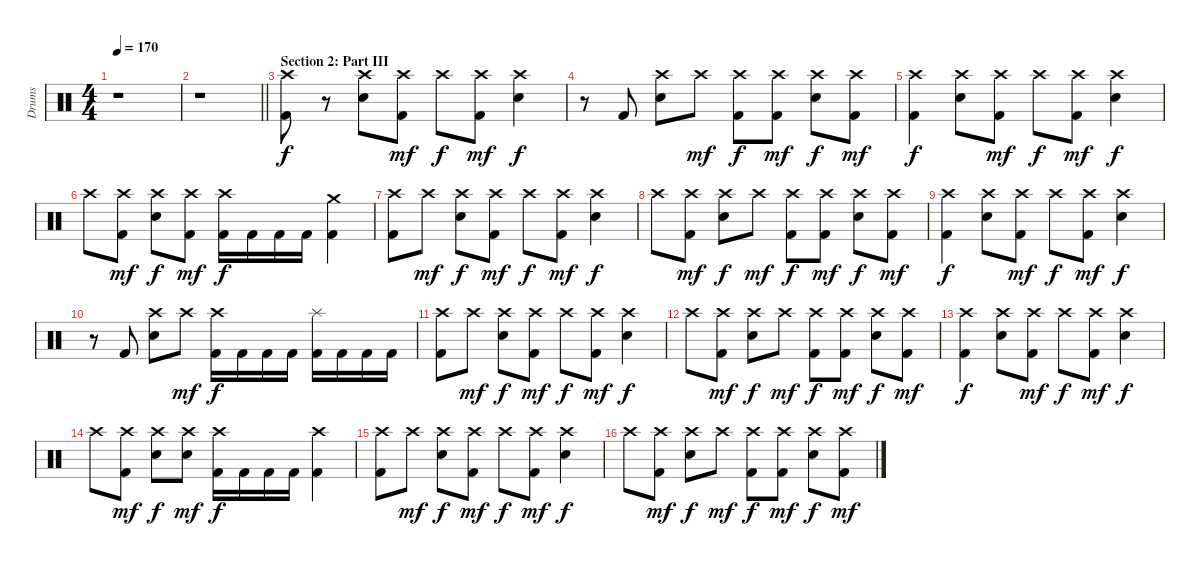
\track ("Drums" "Drums") {instrument percussion}
\staff {score}
\articulation defaults
\ts (4 4)
\tempo 170
\clef neutral
\ks c
r.1{dy f} |
\barLineRight lightlight
r.1 |
\section ("" "Section 2: Part III")
("Crash high (hit)" "Kick (hit) 2").8 r.8 ("Crash high (hit)" "Electric Snare (hit)").8 ("Crash high (hit)" "Kick (hit) 2").8{dy mf} "Crash high (hit)".8{dy f} ("Crash high (hit)" "Kick (hit) 2").8{dy mf} ("Crash high (hit)" "Electric Snare (hit)").4{dy f} |
r.8 "Kick (hit) 2".8 ("Crash high (hit)" "Electric Snare (hit)").8 "Crash high (hit)".8{dy mf} ("Crash high (hit)" "Kick (hit) 2").8{dy f} ("Crash high (hit)" "Kick (hit) 2").8{dy mf} ("Crash high (hit)" "Electric Snare (hit)").8{dy f} ("Crash high (hit)" "Kick (hit) 2").8{dy mf} |
("Crash high (hit)" "Kick (hit) 2").4{dy f} ("Crash high (hit)" "Electric Snare (hit)").8 ("Crash high (hit)" "Kick (hit) 2").8{dy mf} "Crash high (hit)".8{dy f} ("Crash high (hit)" "Kick (hit) 2").8{dy mf} ("Crash high (hit)" "Electric Snare (hit)").4{dy f} |
"Crash high (hit)".8 ("Crash high (hit)" "Kick (hit) 2").8{dy mf} ("Crash high (hit)" "Electric Snare (hit)").8{dy f} ("Crash high (hit)" "Kick (hit) 2").8{dy mf} ("Crash high (hit)" "Kick (hit) 2").16{dy f} "Kick (hit) 2".16 "Kick (hit) 2".16 "Kick (hit) 2".16 ("Crash medium (hit)" "Kick (hit) 2").4 |
("Crash high (hit)" "Kick (hit) 2").8 "Crash high (hit)".8{dy mf} ("Crash high (hit)" "Electric Snare (hit)").8{dy f} ("Crash high (hit)" "Kick (hit) 2").8{dy mf} "Crash high (hit)".8{dy f} ("Crash high (hit)" "Kick (hit) 2").8{dy mf} ("Crash high (hit)" "Electric Snare (hit)").4{dy f} |
"Crash high (hit)".8 ("Crash high (hit)" "Kick (hit) 2").8{dy mf} ("Crash high (hit)" "Electric Snare (hit)").8{dy f} "Crash high (hit)".8{dy mf} ("Crash high (hit)" "Kick (hit) 2").8{dy f} ("Crash high (hit)" "Kick (hit) 2").8{dy mf} ("Crash high (hit)" "Electric Snare (hit)").8{dy f} ("Crash high (hit)" "Kick (hit) 2").8{dy mf} |
("Crash high (hit)" "Kick (hit) 2").4{dy f} ("Crash high (hit)" "Electric Snare (hit)").8 ("Crash high (hit)" "Kick (hit) 2").8{dy mf} "Crash high (hit)".8{dy f} ("Crash high (hit)" "Kick (hit) 2").8{dy mf} ("Crash high (hit)" "Electric Snare (hit)").4{dy f} |
r.8 "Kick (hit) 2".8 ("Crash high (hit)" "Electric Snare (hit)").8 "Crash high (hit)".8{dy mf} ("Crash high (hit)" "Kick (hit) 2").16{dy f} "Kick (hit) 2".16 "Kick (hit) 2".16 "Kick (hit) 2".16 ("Splash (hit)" "Kick (hit) 2").16 "Kick (hit) 2".16 "Kick (hit) 2".16 "Kick (hit) 2".16 |
("Crash high (hit)" "Kick (hit) 2").8 "Crash high (hit)".8{dy mf} ("Crash high (hit)" "Electric Snare (hit)").8{dy f} ("Crash high (hit)" "Kick (hit) 2").8{dy mf} "Crash high (hit)".8{dy f} ("Crash high (hit)" "Kick (hit) 2").8{dy mf} ("Crash high (hit)" "Electric Snare (hit)").4{dy f} |
"Crash high (hit)".8 ("Crash high (hit)" "Kick (hit) 2").8{dy mf} ("Crash high (hit)" "Electric Snare (hit)").8{dy f} "Crash high (hit)".8{dy mf} ("Crash high (hit)" "Kick (hit) 2").8{dy f} ("Crash high (hit)" "Kick (hit) 2").8{dy mf} ("Crash high (hit)" "Electric Snare (hit)").8{dy f} ("Crash high (hit)" "Kick (hit) 2").8{dy mf} |
("Crash high (hit)" "Kick (hit) 2").4{dy f} ("Crash high (hit)" "Electric Snare (hit)").8 ("Crash high (hit)" "Kick (hit) 2").8{dy mf} "Crash high (hit)".8{dy f} ("Crash high (hit)" "Kick (hit) 2").8{dy mf} ("Crash high (hit)" "Electric Snare (hit)").4{dy f} |
"Crash high (hit)".8 ("Crash high (hit)" "Kick (hit) 2").8{dy mf} ("Crash high (hit)" "Electric Snare (hit)").8{dy f} ("Crash high (hit)" "Electric Snare (hit)").8{dy mf} ("Crash high (hit)" "Kick (hit) 2").16{dy f} "Kick (hit) 2".16 "Kick (hit) 2".16 "Kick (hit) 2".16 ("Crash high (hit)" "Kick (hit) 2").4 |
("Crash high (hit)" "Kick (hit) 2").8 "Crash high (hit)".8{dy mf} ("Crash high (hit)" "Electric Snare (hit)").8{dy f} ("Crash high (hit)" "Kick (hit) 2").8{dy mf} "Crash high (hit)".8{dy f} ("Crash high (hit)" "Kick (hit) 2").8{dy mf} ("Crash high (hit)" "Electric Snare (hit)").4{dy f} |
"Crash high (hit)".8 ("Crash high (hit)" "Kick (hit) 2").8{dy mf} ("Crash high (hit)" "Electric Snare (hit)").8{dy f} "Crash high (hit)".8{dy mf} ("Crash high (hit)" "Kick (hit) 2").8{dy f} ("Crash high (hit)" "Kick (hit) 2").8{dy mf} ("Crash high (hit)" "Electric Snare (hit)").8{dy f} ("Crash high (hit)" "Kick (hit) 2").8{dy mf}
